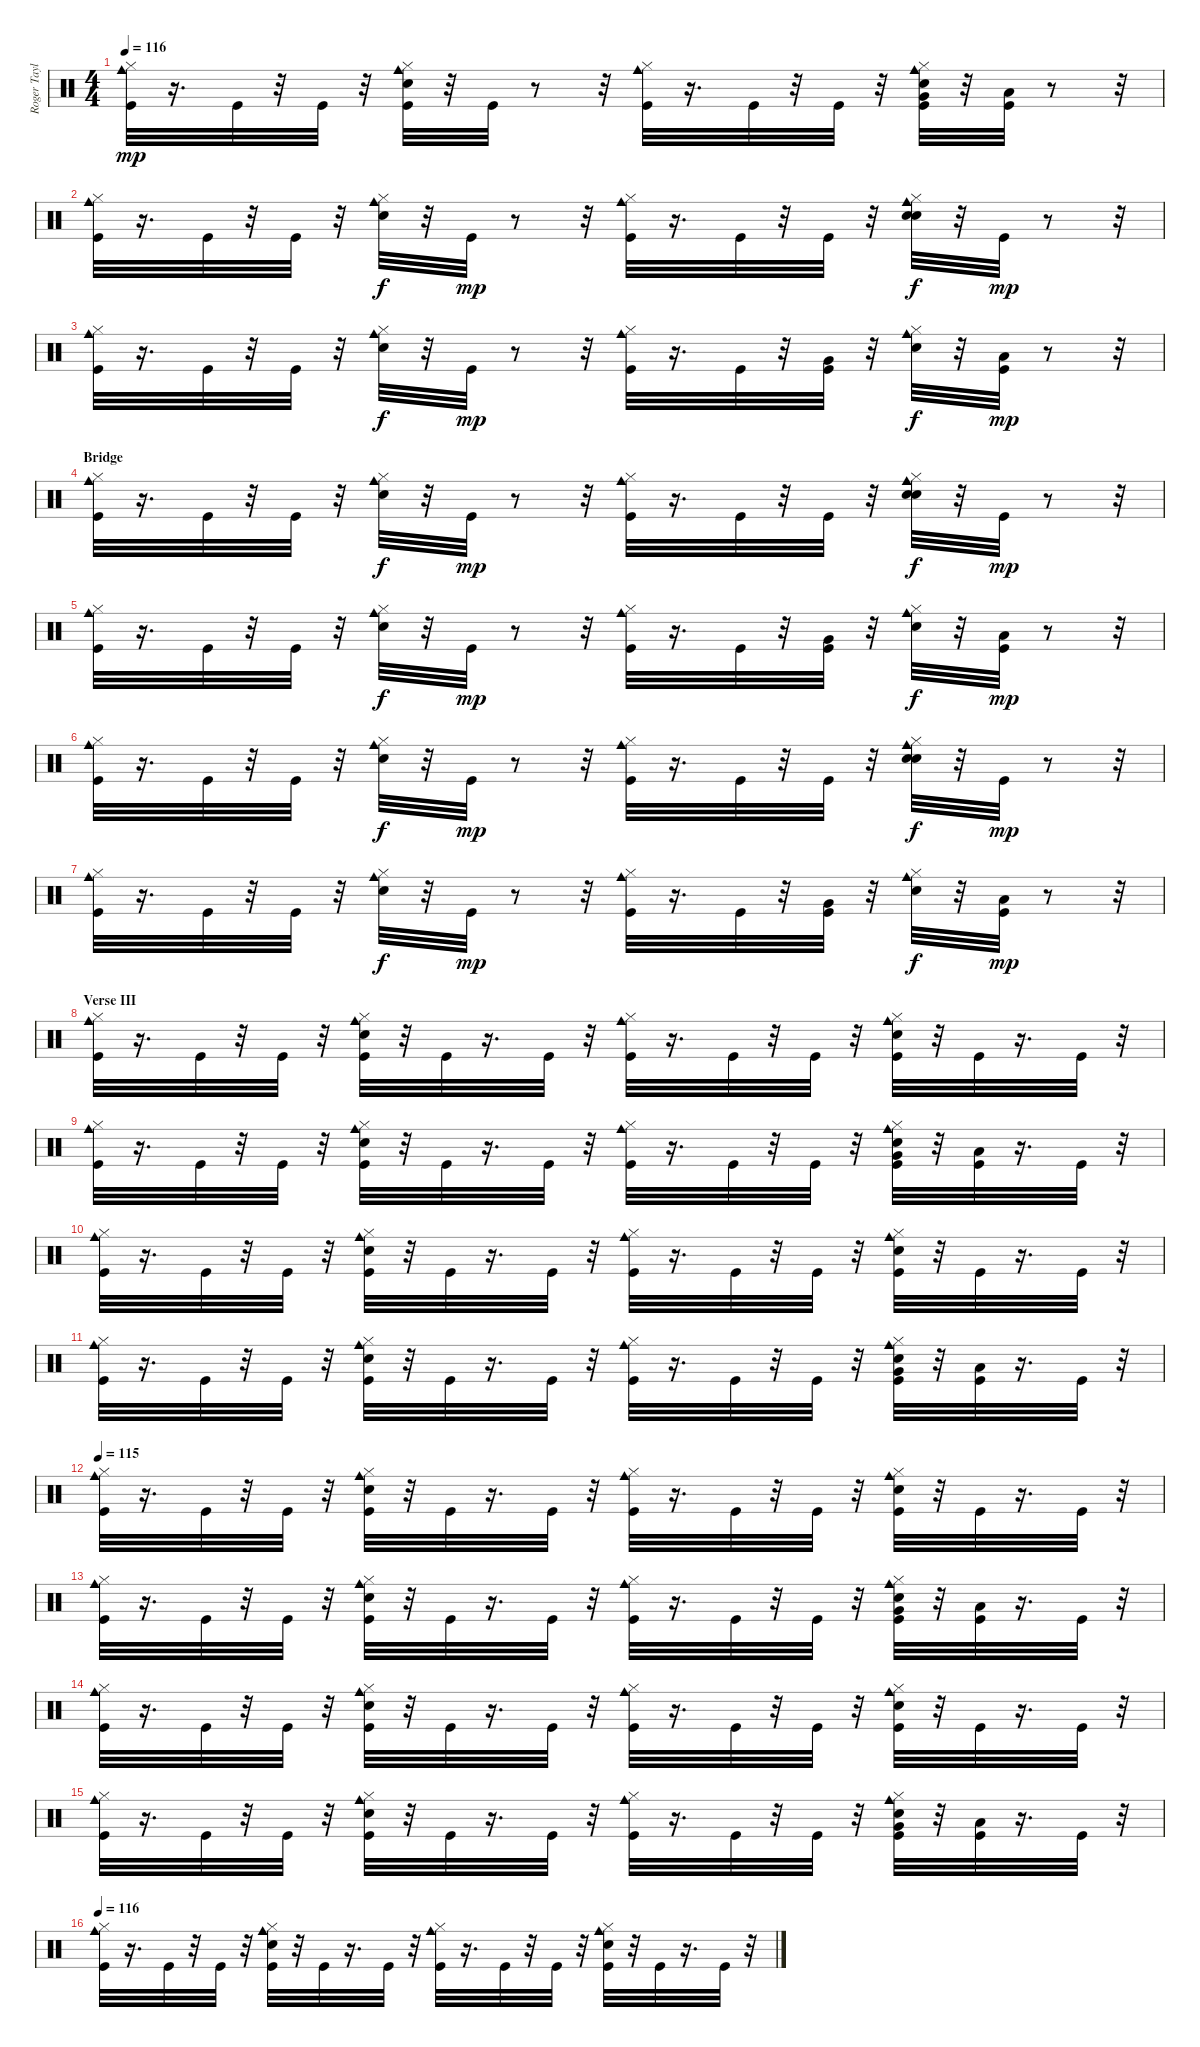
\track ("Roger Taylor" "Roger Tayl") {instrument percussion}
\staff {score}
\articulation defaults
\ts (4 4)
\tempo 116
\clef neutral
\ks c
("Cowbell medium (hit)" "Hi-Hat (closed)" "Kick (hit)").32{dy mp} r.16{d} "Kick (hit)".32 r.32 "Kick (hit)".32 r.32 ("Cowbell medium (hit)" "Snare (hit)" "Hi-Hat (closed)" "Kick (hit)").32 r.32 "Kick (hit)".32 r.8 r.32 ("Cowbell medium (hit)" "Hi-Hat (closed)" "Kick (hit)").32 r.16{d} "Kick (hit)".32 r.32 "Kick (hit)".32 r.32 ("Very Low Tom (hit)" "Cowbell medium (hit)" "Snare (hit)" "Hi-Hat (closed)" "Kick (hit)").32 r.32 ("Low Floor Tom (hit)" "Kick (hit)").32 r.8 r.32 |
("Cowbell medium (hit)" "Hi-Hat (closed)" "Kick (hit)").32 r.16{d} "Kick (hit)".32 r.32 "Kick (hit)".32 r.32 ("Hand Clap (hit)" "Cowbell medium (hit)" "Hi-Hat (closed)").32{dy f} r.32 "Kick (hit)".32{dy mp} r.8 r.32 ("Cowbell medium (hit)" "Hi-Hat (closed)" "Kick (hit)").32 r.16{d} "Kick (hit)".32 r.32 "Kick (hit)".32 r.32 ("Snare (hit)" "Cowbell medium (hit)" "Hand Clap (hit)" "Hi-Hat (closed)").32{dy f} r.32 "Kick (hit)".32{dy mp} r.8 r.32 |
("Cowbell medium (hit)" "Hi-Hat (closed)" "Kick (hit)").32 r.16{d} "Kick (hit)".32 r.32 "Kick (hit)".32 r.32 ("Snare (hit)" "Cowbell medium (hit)" "Hi-Hat (closed)").32{dy f} r.32 "Kick (hit)".32{dy mp} r.8 r.32 ("Cowbell medium (hit)" "Hi-Hat (closed)" "Kick (hit)").32 r.16{d} "Kick (hit)".32 r.32 ("Very Low Tom (hit)" "Kick (hit)").32 r.32 ("Snare (hit)" "Cowbell medium (hit)" "Hi-Hat (closed)").32{dy f} r.32 ("Low Floor Tom (hit)" "Kick (hit)").32{dy mp} r.8 r.32 |
\section ("" "Bridge")
("Hi-Hat (closed)" "Cowbell medium (hit)" "Kick (hit)").32 r.16{d} "Kick (hit)".32 r.32 "Kick (hit)".32 r.32 ("Hi-Hat (closed)" "Hand Clap (hit)" "Cowbell medium (hit)").32{dy f} r.32 "Kick (hit)".32{dy mp} r.8 r.32 ("Cowbell medium (hit)" "Hi-Hat (closed)" "Kick (hit)").32 r.16{d} "Kick (hit)".32 r.32 "Kick (hit)".32 r.32 ("Hand Clap (hit)" "Hi-Hat (closed)" "Snare (hit)" "Cowbell medium (hit)").32{dy f} r.32 "Kick (hit)".32{dy mp} r.8 r.32 |
("Cowbell medium (hit)" "Hi-Hat (closed)" "Kick (hit)").32 r.16{d} "Kick (hit)".32 r.32 "Kick (hit)".32 r.32 ("Snare (hit)" "Cowbell medium (hit)" "Hi-Hat (closed)").32{dy f} r.32 "Kick (hit)".32{dy mp} r.8 r.32 ("Cowbell medium (hit)" "Hi-Hat (closed)" "Kick (hit)").32 r.16{d} "Kick (hit)".32 r.32 ("Very Low Tom (hit)" "Kick (hit)").32 r.32 ("Snare (hit)" "Cowbell medium (hit)" "Hi-Hat (closed)").32{dy f} r.32 ("Low Floor Tom (hit)" "Kick (hit)").32{dy mp} r.8 r.32 |
("Hi-Hat (closed)" "Cowbell medium (hit)" "Kick (hit)").32 r.16{d} "Kick (hit)".32 r.32 "Kick (hit)".32 r.32 ("Hi-Hat (closed)" "Hand Clap (hit)" "Cowbell medium (hit)").32{dy f} r.32 "Kick (hit)".32{dy mp} r.8 r.32 ("Cowbell medium (hit)" "Hi-Hat (closed)" "Kick (hit)").32 r.16{d} "Kick (hit)".32 r.32 "Kick (hit)".32 r.32 ("Hand Clap (hit)" "Hi-Hat (closed)" "Snare (hit)" "Cowbell medium (hit)").32{dy f} r.32 "Kick (hit)".32{dy mp} r.8 r.32 |
("Cowbell medium (hit)" "Hi-Hat (closed)" "Kick (hit)").32 r.16{d} "Kick (hit)".32 r.32 "Kick (hit)".32 r.32 ("Snare (hit)" "Cowbell medium (hit)" "Hi-Hat (closed)").32{dy f} r.32 "Kick (hit)".32{dy mp} r.8 r.32 ("Cowbell medium (hit)" "Hi-Hat (closed)" "Kick (hit)").32 r.16{d} "Kick (hit)".32 r.32 ("Very Low Tom (hit)" "Kick (hit)").32 r.32 ("Snare (hit)" "Cowbell medium (hit)" "Hi-Hat (closed)").32{dy f} r.32 ("Low Floor Tom (hit)" "Kick (hit)").32{dy mp} r.8 r.32 |
\section ("" "Verse III")
("Cowbell medium (hit)" "Hi-Hat (closed)" "Kick (hit)").32 r.16{d} "Kick (hit)".32 r.32 "Kick (hit)".32 r.32 ("Snare (hit)" "Cowbell medium (hit)" "Hi-Hat (closed)" "Kick (hit)").32 r.32 "Kick (hit)".32 r.16{d} "Kick (hit)".32 r.32 ("Cowbell medium (hit)" "Hi-Hat (closed)" "Kick (hit)").32 r.16{d} "Kick (hit)".32 r.32 "Kick (hit)".32 r.32 ("Hand Clap (hit)" "Cowbell medium (hit)" "Hi-Hat (closed)" "Kick (hit)").32 r.32 "Kick (hit)".32 r.16{d} "Kick (hit)".32 r.32 |
("Cowbell medium (hit)" "Hi-Hat (closed)" "Kick (hit)").32 r.16{d} "Kick (hit)".32 r.32 "Kick (hit)".32 r.32 ("Snare (hit)" "Cowbell medium (hit)" "Hi-Hat (closed)" "Kick (hit)").32 r.32 "Kick (hit)".32 r.16{d} "Kick (hit)".32 r.32 ("Cowbell medium (hit)" "Hi-Hat (closed)" "Kick (hit)").32 r.16{d} "Kick (hit)".32 r.32 "Kick (hit)".32 r.32 ("Very Low Tom (hit)" "Hand Clap (hit)" "Cowbell medium (hit)" "Hi-Hat (closed)" "Kick (hit)").32 r.32 ("Low Floor Tom (hit)" "Kick (hit)").32 r.16{d} "Kick (hit)".32 r.32 |
("Cowbell medium (hit)" "Hi-Hat (closed)" "Kick (hit)").32 r.16{d} "Kick (hit)".32 r.32 "Kick (hit)".32 r.32 ("Snare (hit)" "Cowbell medium (hit)" "Hi-Hat (closed)" "Kick (hit)").32 r.32 "Kick (hit)".32 r.16{d} "Kick (hit)".32 r.32 ("Cowbell medium (hit)" "Hi-Hat (closed)" "Kick (hit)").32 r.16{d} "Kick (hit)".32 r.32 "Kick (hit)".32 r.32 ("Hand Clap (hit)" "Cowbell medium (hit)" "Hi-Hat (closed)" "Kick (hit)").32 r.32 "Kick (hit)".32 r.16{d} "Kick (hit)".32 r.32 |
("Cowbell medium (hit)" "Hi-Hat (closed)" "Kick (hit)").32 r.16{d} "Kick (hit)".32 r.32 "Kick (hit)".32 r.32 ("Snare (hit)" "Cowbell medium (hit)" "Hi-Hat (closed)" "Kick (hit)").32 r.32 "Kick (hit)".32 r.16{d} "Kick (hit)".32 r.32 ("Cowbell medium (hit)" "Hi-Hat (closed)" "Kick (hit)").32 r.16{d} "Kick (hit)".32 r.32 "Kick (hit)".32 r.32 ("Very Low Tom (hit)" "Hand Clap (hit)" "Cowbell medium (hit)" "Hi-Hat (closed)" "Kick (hit)").32 r.32 ("Low Floor Tom (hit)" "Kick (hit)").32 r.16{d} "Kick (hit)".32 r.32 |
\tempo 115
("Cowbell medium (hit)" "Hi-Hat (closed)" "Kick (hit)").32 r.16{d} "Kick (hit)".32 r.32 "Kick (hit)".32 r.32 ("Snare (hit)" "Cowbell medium (hit)" "Hi-Hat (closed)" "Kick (hit)").32 r.32 "Kick (hit)".32 r.16{d} "Kick (hit)".32 r.32 ("Cowbell medium (hit)" "Hi-Hat (closed)" "Kick (hit)").32 r.16{d} "Kick (hit)".32 r.32 "Kick (hit)".32 r.32 ("Hand Clap (hit)" "Cowbell medium (hit)" "Hi-Hat (closed)" "Kick (hit)").32 r.32 "Kick (hit)".32 r.16{d} "Kick (hit)".32 r.32 |
("Cowbell medium (hit)" "Hi-Hat (closed)" "Kick (hit)").32 r.16{d} "Kick (hit)".32 r.32 "Kick (hit)".32 r.32 ("Snare (hit)" "Cowbell medium (hit)" "Hi-Hat (closed)" "Kick (hit)").32 r.32 "Kick (hit)".32 r.16{d} "Kick (hit)".32 r.32 ("Cowbell medium (hit)" "Hi-Hat (closed)" "Kick (hit)").32 r.16{d} "Kick (hit)".32 r.32 "Kick (hit)".32 r.32 ("Very Low Tom (hit)" "Hand Clap (hit)" "Cowbell medium (hit)" "Hi-Hat (closed)" "Kick (hit)").32 r.32 ("Low Floor Tom (hit)" "Kick (hit)").32 r.16{d} "Kick (hit)".32 r.32 |
("Cowbell medium (hit)" "Hi-Hat (closed)" "Kick (hit)").32 r.16{d} "Kick (hit)".32 r.32 "Kick (hit)".32 r.32 ("Snare (hit)" "Cowbell medium (hit)" "Hi-Hat (closed)" "Kick (hit)").32 r.32 "Kick (hit)".32 r.16{d} "Kick (hit)".32 r.32 ("Cowbell medium (hit)" "Hi-Hat (closed)" "Kick (hit)").32 r.16{d} "Kick (hit)".32 r.32 "Kick (hit)".32 r.32 ("Snare (hit)" "Cowbell medium (hit)" "Hi-Hat (closed)" "Kick (hit)").32 r.32 "Kick (hit)".32 r.16{d} "Kick (hit)".32 r.32 |
("Cowbell medium (hit)" "Hi-Hat (closed)" "Kick (hit)").32 r.16{d} "Kick (hit)".32 r.32 "Kick (hit)".32 r.32 ("Snare (hit)" "Cowbell medium (hit)" "Hi-Hat (closed)" "Kick (hit)").32 r.32 "Kick (hit)".32 r.16{d} "Kick (hit)".32 r.32 ("Cowbell medium (hit)" "Hi-Hat (closed)" "Kick (hit)").32 r.16{d} "Kick (hit)".32 r.32 "Kick (hit)".32 r.32 ("Very Low Tom (hit)" "Hand Clap (hit)" "Cowbell medium (hit)" "Hi-Hat (closed)" "Kick (hit)").32 r.32 ("Low Floor Tom (hit)" "Kick (hit)").32 r.16{d} "Kick (hit)".32 r.32 |
\tempo 116
("Cowbell medium (hit)" "Hi-Hat (closed)" "Kick (hit)").32 r.16{d} "Kick (hit)".32 r.32 "Kick (hit)".32 r.32 ("Snare (hit)" "Cowbell medium (hit)" "Hi-Hat (closed)" "Kick (hit)").32 r.32 "Kick (hit)".32 r.16{d} "Kick (hit)".32 r.32 ("Cowbell medium (hit)" "Hi-Hat (closed)" "Kick (hit)").32 r.16{d} "Kick (hit)".32 r.32 "Kick (hit)".32 r.32 ("Snare (hit)" "Cowbell medium (hit)" "Hi-Hat (closed)" "Kick (hit)").32 r.32 "Kick (hit)".32 r.16{d} "Kick (hit)".32 r.32
